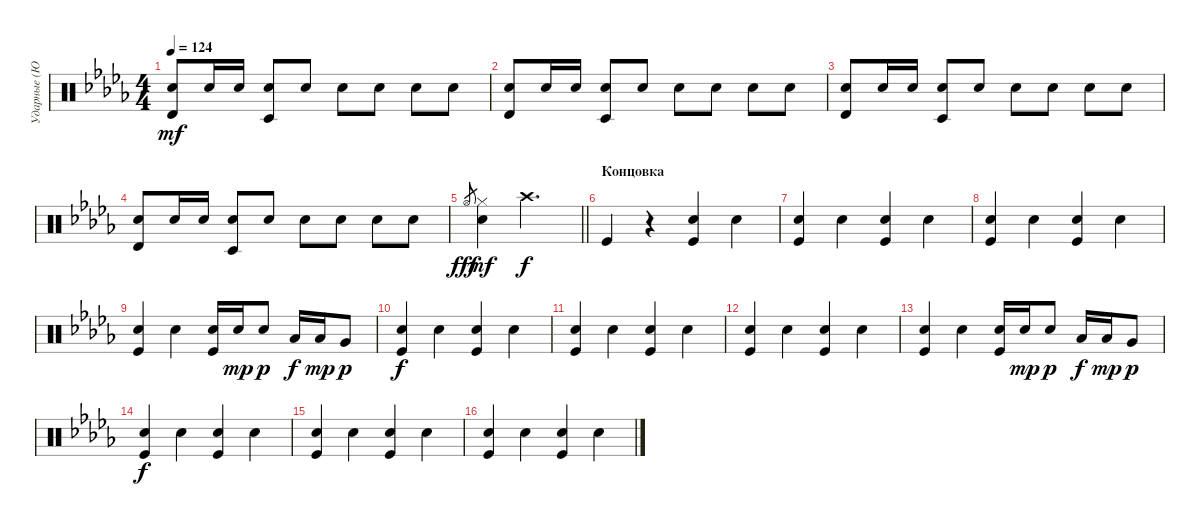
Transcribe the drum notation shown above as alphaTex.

\track ("Ударные (Ю.Борзов)" "Ударные (Ю") {instrument percussion}
\staff {score}
\articulation defaults
\ts (4 4)
\tempo 124
\clef neutral
\ks bbminor
("Timbale high (hit)" "Snare (hit) 2").8{dy mf} "Snare (hit) 2".16 "Snare (hit) 2".16 ("Timbale low (hit)" "Snare (hit) 2").8 "Snare (hit) 2".8 "Snare (hit) 2".8 "Snare (hit) 2".8 "Snare (hit) 2".8 "Snare (hit) 2".8 |
("Timbale high (hit)" "Snare (hit) 2").8 "Snare (hit) 2".16 "Snare (hit) 2".16 ("Timbale low (hit)" "Snare (hit) 2").8 "Snare (hit) 2".8 "Snare (hit) 2".8 "Snare (hit) 2".8 "Snare (hit) 2".8 "Snare (hit) 2".8 |
("Timbale high (hit)" "Snare (hit) 2").8 "Snare (hit) 2".16 "Snare (hit) 2".16 ("Timbale low (hit)" "Snare (hit) 2").8 "Snare (hit) 2".8 "Snare (hit) 2".8 "Snare (hit) 2".8 "Snare (hit) 2".8 "Snare (hit) 2".8 |
("Timbale high (hit)" "Snare (hit) 2").8 "Snare (hit) 2".16 "Snare (hit) 2".16 ("Timbale low (hit)" "Snare (hit) 2").8 "Snare (hit) 2".8 "Snare (hit) 2".8 "Snare (hit) 2".8 "Snare (hit) 2".8 "Snare (hit) 2".8 |
\barLineRight lightlight "Hi-Hat (open)".8{gr dy fff}
("Hi-Hat (closed)" "Snare (hit) 2").4{dy mf} "Crash high (hit)".2{d dy f} |
\section ("" "Концовка")
"Kick (hit)".4 r.4 ("Snare (hit) 2" "Kick (hit)").4 "Snare (hit) 2".4 |
("Snare (hit) 2" "Kick (hit)").4 "Snare (hit) 2".4 ("Snare (hit) 2" "Kick (hit)").4 "Snare (hit) 2".4 |
("Snare (hit) 2" "Kick (hit)").4 "Snare (hit) 2".4 ("Snare (hit) 2" "Kick (hit)").4 "Snare (hit) 2".4 |
("Snare (hit) 2" "Kick (hit)").4 "Snare (hit) 2".4 ("Snare (hit) 2" "Kick (hit)").16 "Snare (hit) 2".16{dy mp} "Snare (hit) 2".8{dy p} "Low Tom (hit)".16{dy f} "Low Tom (hit)".16{dy mp} "Very Low Tom (hit)".8{dy p} |
("Snare (hit) 2" "Kick (hit)").4{dy f} "Snare (hit) 2".4 ("Snare (hit) 2" "Kick (hit)").4 "Snare (hit) 2".4 |
("Snare (hit) 2" "Kick (hit)").4 "Snare (hit) 2".4 ("Snare (hit) 2" "Kick (hit)").4 "Snare (hit) 2".4 |
("Snare (hit) 2" "Kick (hit)").4 "Snare (hit) 2".4 ("Snare (hit) 2" "Kick (hit)").4 "Snare (hit) 2".4 |
("Snare (hit) 2" "Kick (hit)").4 "Snare (hit) 2".4 ("Snare (hit) 2" "Kick (hit)").16 "Snare (hit) 2".16{dy mp} "Snare (hit) 2".8{dy p} "Low Tom (hit)".16{dy f} "Low Tom (hit)".16{dy mp} "Very Low Tom (hit)".8{dy p} |
("Snare (hit) 2" "Kick (hit)").4{dy f} "Snare (hit) 2".4 ("Snare (hit) 2" "Kick (hit)").4 "Snare (hit) 2".4 |
("Snare (hit) 2" "Kick (hit)").4 "Snare (hit) 2".4 ("Snare (hit) 2" "Kick (hit)").4 "Snare (hit) 2".4 |
("Snare (hit) 2" "Kick (hit)").4 "Snare (hit) 2".4 ("Snare (hit) 2" "Kick (hit)").4 "Snare (hit) 2".4
